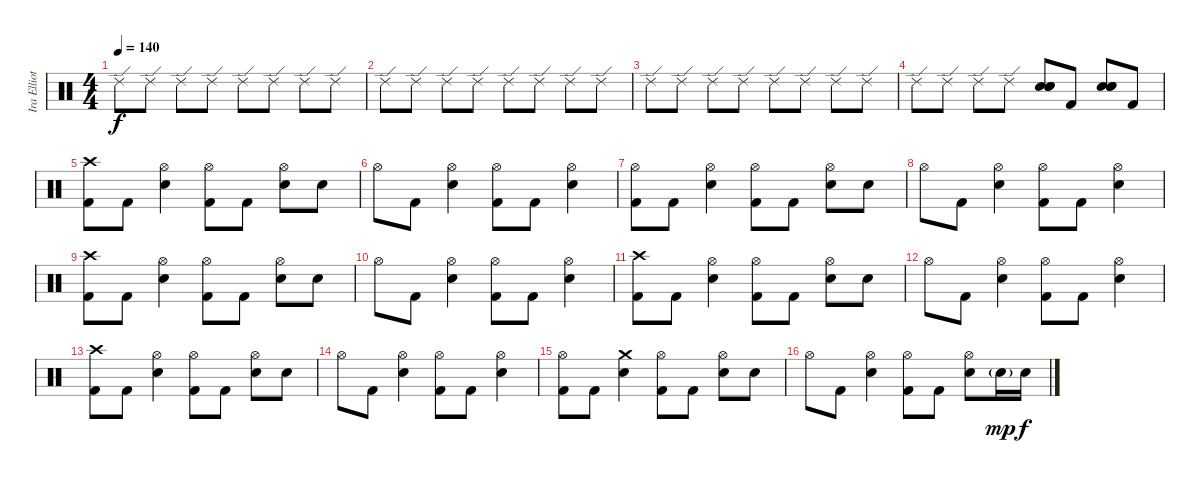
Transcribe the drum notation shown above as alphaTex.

\track ("Ira Elliott" "Ira Elliot") {instrument percussion}
\staff {score}
\articulation defaults
\ts (4 4)
\tempo 140
\clef neutral
\ks c "Ride (edge) 2".8{dy f} "Ride (edge) 2".8 "Ride (edge) 2".8 "Ride (edge) 2".8 "Ride (edge) 2".8 "Ride (edge) 2".8 "Ride (edge) 2".8 "Ride (edge) 2".8
|
"Ride (edge) 2".8 "Ride (edge) 2".8 "Ride (edge) 2".8 "Ride (edge) 2".8 "Ride (edge) 2".8 "Ride (edge) 2".8 "Ride (edge) 2".8 "Ride (edge) 2".8 |
"Ride (edge) 2".8 "Ride (edge) 2".8 "Ride (edge) 2".8 "Ride (edge) 2".8 "Ride (edge) 2".8 "Ride (edge) 2".8 "Ride (edge) 2".8 "Ride (edge) 2".8 |
"Ride (edge) 2".8 "Ride (edge) 2".8 "Ride (edge) 2".8 "Ride (edge) 2".8 ("Electric Snare (hit)" "Electric Snare (hit)" "Electric Snare (hit)").8 "Kick (hit) 2".8 ("Electric Snare (hit)" "Electric Snare (hit)" "Electric Snare (hit)").8 "Kick (hit) 2".8 |
("Crash high (hit)" "Kick (hit) 2").8 "Kick (hit) 2".8 ("Hi-Hat (open)" "Electric Snare (hit)").4 ("Hi-Hat (open)" "Kick (hit) 2").8 "Kick (hit) 2".8 ("Hi-Hat (open)" "Electric Snare (hit)").8 "Electric Snare (hit)".8 |
"Hi-Hat (open)".8 "Kick (hit) 2".8 ("Hi-Hat (open)" "Electric Snare (hit)").4 ("Hi-Hat (open)" "Kick (hit) 2").8 "Kick (hit) 2".8 ("Hi-Hat (open)" "Electric Snare (hit)").4 |
("Hi-Hat (open)" "Kick (hit) 2").8 "Kick (hit) 2".8 ("Hi-Hat (open)" "Electric Snare (hit)").4 ("Hi-Hat (open)" "Kick (hit) 2").8 "Kick (hit) 2".8 ("Hi-Hat (open)" "Electric Snare (hit)").8 "Electric Snare (hit)".8 |
"Hi-Hat (open)".8 "Kick (hit) 2".8 ("Hi-Hat (open)" "Electric Snare (hit)").4 ("Hi-Hat (open)" "Kick (hit) 2").8 "Kick (hit) 2".8 ("Hi-Hat (open)" "Electric Snare (hit)").4 |
("Crash high (hit)" "Kick (hit) 2").8 "Kick (hit) 2".8 ("Hi-Hat (open)" "Electric Snare (hit)").4 ("Hi-Hat (open)" "Kick (hit) 2").8 "Kick (hit) 2".8 ("Hi-Hat (open)" "Electric Snare (hit)").8 "Electric Snare (hit)".8 |
"Hi-Hat (open)".8 "Kick (hit) 2".8 ("Hi-Hat (open)" "Electric Snare (hit)").4 ("Hi-Hat (open)" "Kick (hit) 2").8 "Kick (hit) 2".8 ("Hi-Hat (open)" "Electric Snare (hit)").4 |
("Crash high (hit)" "Kick (hit) 2").8 "Kick (hit) 2".8 ("Hi-Hat (open)" "Electric Snare (hit)").4 ("Hi-Hat (open)" "Kick (hit) 2").8 "Kick (hit) 2".8 ("Hi-Hat (open)" "Electric Snare (hit)").8 "Electric Snare (hit)".8 |
"Hi-Hat (open)".8 "Kick (hit) 2".8 ("Hi-Hat (open)" "Electric Snare (hit)").4 ("Hi-Hat (open)" "Kick (hit) 2").8 "Kick (hit) 2".8 ("Hi-Hat (open)" "Electric Snare (hit)").4 |
("Crash high (hit)" "Kick (hit) 2").8 "Kick (hit) 2".8 ("Hi-Hat (open)" "Electric Snare (hit)").4 ("Hi-Hat (open)" "Kick (hit) 2").8 "Kick (hit) 2".8 ("Hi-Hat (open)" "Electric Snare (hit)").8 "Electric Snare (hit)".8 |
"Hi-Hat (open)".8 "Kick (hit) 2".8 ("Hi-Hat (open)" "Electric Snare (hit)").4 ("Hi-Hat (open)" "Kick (hit) 2").8 "Kick (hit) 2".8 ("Hi-Hat (open)" "Electric Snare (hit)").4 |
("Hi-Hat (open)" "Kick (hit) 2").8 "Kick (hit) 2".8 ("Crash medium (hit)" "Electric Snare (hit)").4 ("Hi-Hat (open)" "Kick (hit) 2").8 "Kick (hit) 2".8 ("Hi-Hat (open)" "Electric Snare (hit)").8 "Electric Snare (hit)".8 |
"Hi-Hat (open)".8 "Kick (hit) 2".8 ("Hi-Hat (open)" "Electric Snare (hit)").4 ("Hi-Hat (open)" "Kick (hit) 2").8 "Kick (hit) 2".8 ("Hi-Hat (open)" "Electric Snare (hit)").8 "Electric Snare (hit)"{g}.16{dy mp} "Electric Snare (hit)".16{dy f}
